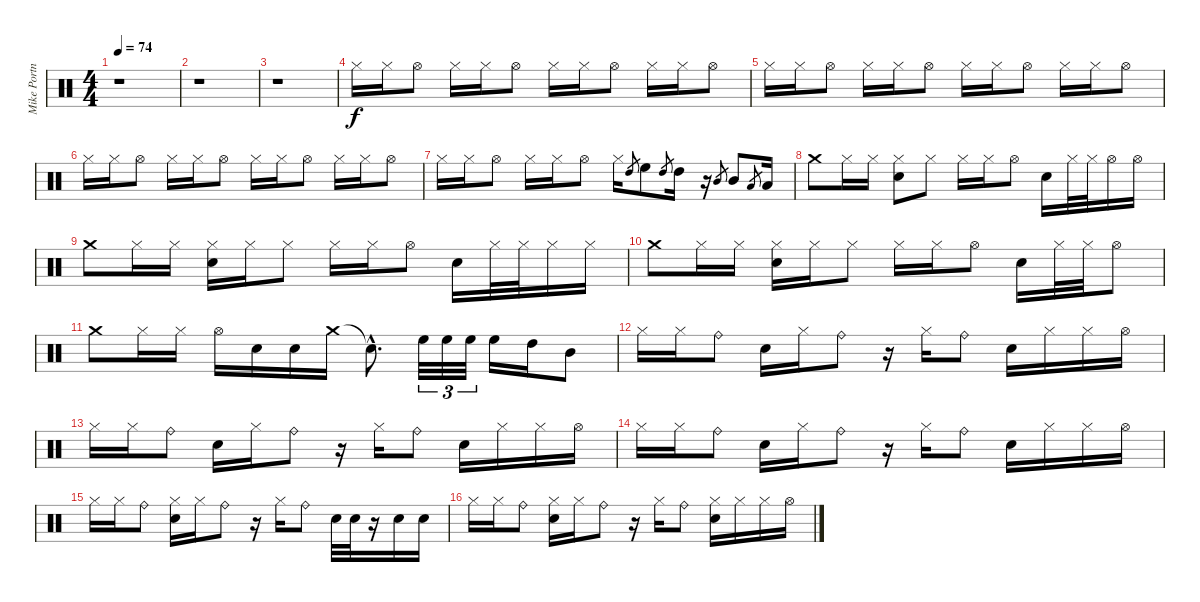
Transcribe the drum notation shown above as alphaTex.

\track ("Mike Portnoy" "Mike Portn") {instrument percussion}
\staff {score}
\articulation defaults
\ts (4 4)
\tempo 74
\clef neutral
\ks c
r.1{dy f} |
r.1 |
r.1 |
"Hi-Hat (closed)".16 "Hi-Hat (closed)".16 "Hi-Hat (open)".8 "Hi-Hat (closed)".16 "Hi-Hat (closed)".16 "Hi-Hat (open)".8 "Hi-Hat (closed)".16 "Hi-Hat (closed)".16 "Hi-Hat (open)".8 "Hi-Hat (closed)".16 "Hi-Hat (closed)".16 "Hi-Hat (open)".8 |
"Hi-Hat (closed)".16 "Hi-Hat (closed)".16 "Hi-Hat (open)".8 "Hi-Hat (closed)".16 "Hi-Hat (closed)".16 "Hi-Hat (open)".8 "Hi-Hat (closed)".16 "Hi-Hat (closed)".16 "Hi-Hat (open)".8 "Hi-Hat (closed)".16 "Hi-Hat (closed)".16 "Hi-Hat (open)".8 |
"Hi-Hat (closed)".16 "Hi-Hat (closed)".16 "Hi-Hat (open)".8 "Hi-Hat (closed)".16 "Hi-Hat (closed)".16 "Hi-Hat (open)".8 "Hi-Hat (closed)".16 "Hi-Hat (closed)".16 "Hi-Hat (open)".8 "Hi-Hat (closed)".16 "Hi-Hat (closed)".16 "Hi-Hat (open)".8 |
"Hi-Hat (closed)".16 "Hi-Hat (closed)".16 "Hi-Hat (open)".8 "Hi-Hat (closed)".16 "Hi-Hat (closed)".16 "Hi-Hat (open)".8 "Hi-Hat (closed)".16 "High Tom (hit)".8{gr} "High Floor Tom (hit)".8 "High Tom (hit)".8{gr} "High Tom (hit)".16 r.16 "Mid Tom (hit)".8{gr} "Mid Tom (hit)".8 "Low Tom (hit)".8{gr} "Low Tom (hit)".16 |
"Crash medium (hit)".8 "Hi-Hat (closed)".16 "Hi-Hat (closed)".16 ("Hi-Hat (closed)" "Electric Snare (hit)").8 "Hi-Hat (closed)".8 "Hi-Hat (closed)".16 "Hi-Hat (closed)".16 "Hi-Hat (open)".8 "Electric Snare (hit)".16 "Hi-Hat (closed)".32 "Hi-Hat (closed)".32 "Hi-Hat (open)".16 "Hi-Hat (open)".16 |
"Crash medium (hit)".8 "Hi-Hat (closed)".16 "Hi-Hat (closed)".16 ("Hi-Hat (closed)" "Electric Snare (hit)").16 "Hi-Hat (closed)".16 "Hi-Hat (closed)".8 "Hi-Hat (closed)".16 "Hi-Hat (closed)".16 "Hi-Hat (open)".8 "Electric Snare (hit)".16 "Hi-Hat (closed)".32 "Hi-Hat (closed)".32 "Hi-Hat (closed)".16 "Hi-Hat (closed)".16 |
"Crash medium (hit)".8 "Hi-Hat (closed)".16 "Hi-Hat (closed)".16 ("Hi-Hat (closed)" "Electric Snare (hit)").16 "Hi-Hat (closed)".16 "Hi-Hat (closed)".8 "Hi-Hat (closed)".16 "Hi-Hat (closed)".16 "Hi-Hat (open)".8 "Electric Snare (hit)".16 "Hi-Hat (closed)".32 "Hi-Hat (closed)".32 "Hi-Hat (open)".8 |
"Crash medium (hit)".8 "Hi-Hat (closed)".16 "Hi-Hat (closed)".16 "Hi-Hat (open)".16 "Electric Snare (hit)".16 "Electric Snare (hit)".16 "Crash medium (hit)".16 "Snare (hit)"{hac t}.8{d} "High Floor Tom (hit)".32{tu (3 2)} "High Floor Tom (hit)".32{tu (3 2)} "High Floor Tom (hit)".32{tu (3 2)} "High Floor Tom (hit)".16 "High Tom (hit)".16 "Mid Tom (hit)".8 |
"Hi-Hat (closed)".16 "Hi-Hat (closed)".16 "Ride (bell)".8 "Electric Snare (hit)".16 "Hi-Hat (closed)".16 "Ride (bell)".8 r.16 "Hi-Hat (closed)".16 "Ride (bell)".8 "Electric Snare (hit)".16 "Hi-Hat (closed)".16 "Hi-Hat (closed)".16 "Hi-Hat (open)".16 |
"Hi-Hat (closed)".16 "Hi-Hat (closed)".16 "Ride (bell)".8 "Electric Snare (hit)".16 "Hi-Hat (closed)".16 "Ride (bell)".8 r.16 "Hi-Hat (closed)".16 "Ride (bell)".8 "Electric Snare (hit)".16 "Hi-Hat (closed)".16 "Hi-Hat (closed)".16 "Hi-Hat (open)".16 |
"Hi-Hat (closed)".16 "Hi-Hat (closed)".16 "Ride (bell)".8 "Electric Snare (hit)".16 "Hi-Hat (closed)".16 "Ride (bell)".8 r.16 "Hi-Hat (closed)".16 "Ride (bell)".8 "Electric Snare (hit)".16 "Hi-Hat (closed)".16 "Hi-Hat (closed)".16 "Hi-Hat (open)".16 |
"Hi-Hat (closed)".16 "Hi-Hat (closed)".16 "Ride (bell)".8 ("Hi-Hat (closed)" "Electric Snare (hit)").16 "Hi-Hat (closed)".16 "Ride (bell)".8 r.16 "Hi-Hat (closed)".16 "Ride (bell)".8 "Electric Snare (hit)".32 "Electric Snare (hit)".32 r.16 "Electric Snare (hit)".16 "Electric Snare (hit)".16 |
"Hi-Hat (closed)".16 "Hi-Hat (closed)".16 "Ride (bell)".8 ("Hi-Hat (closed)" "Electric Snare (hit)").16 "Hi-Hat (closed)".16 "Ride (bell)".8 r.16 "Hi-Hat (closed)".16 "Ride (bell)".8 ("Hi-Hat (closed)" "Electric Snare (hit)").16 "Hi-Hat (closed)".16 "Hi-Hat (closed)".16 "Hi-Hat (open)".16
